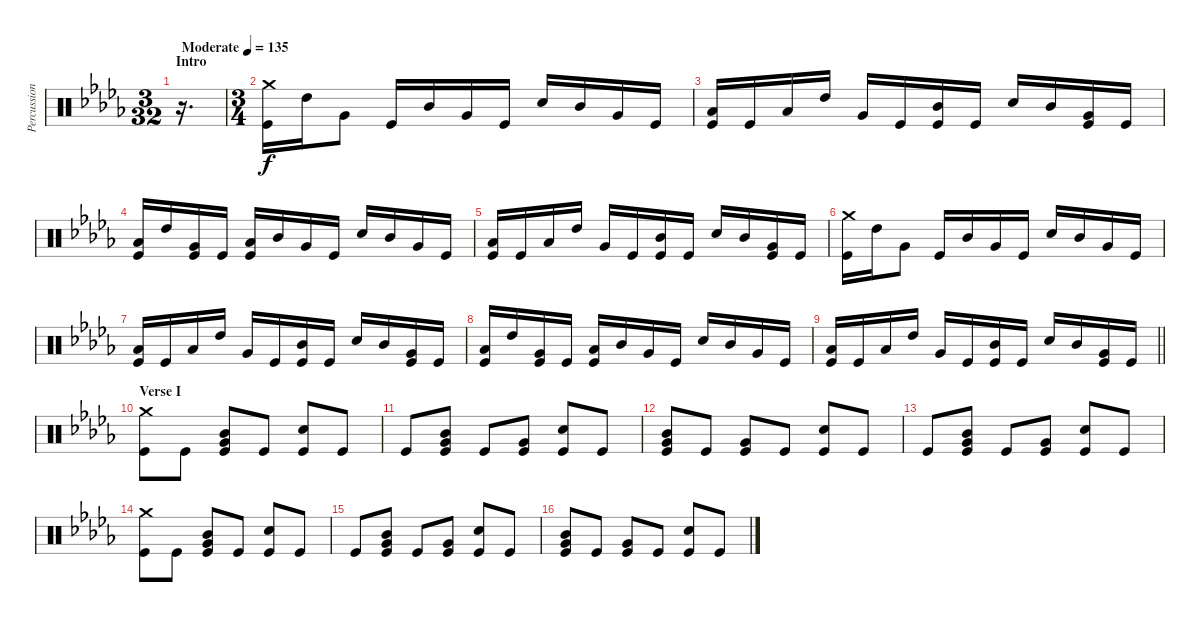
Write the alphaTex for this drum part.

\track ("Percussion" "Percussion") {instrument percussion}
\staff {score}
\articulation defaults
\ts (3 32)
\section ("" "Intro")
\tempo (135 "Moderate")
\clef neutral
\ks db
r.16{d dy f} |
\ts (3 4)
("Crash medium (hit)" "Kick (hit)").16 "High Tom (hit)".16 "Very Low Tom (hit)".8 "Kick (hit)".16 "Mid Tom (hit)".16 "Very Low Tom (hit)".16 "Kick (hit)".16 "Electric Snare (hit)".16 "Mid Tom (hit)".16 "Very Low Tom (hit)".16 "Kick (hit)".16 |
("Low Tom (hit)" "Kick (hit)").16 "Kick (hit)".16 "Low Tom (hit)".16 "High Tom (hit)".16 "Very Low Tom (hit)".16 "Kick (hit)".16 ("Mid Tom (hit)" "Kick (hit)").16 "Kick (hit)".16 "Electric Snare (hit)".16 "Mid Tom (hit)".16 ("Very Low Tom (hit)" "Kick (hit)").16 "Kick (hit)".16 |
("Low Tom (hit)" "Kick (hit)").16 "High Tom (hit)".16 ("Very Low Tom (hit)" "Kick (hit)").16 "Kick (hit)".16 ("Low Tom (hit)" "Kick (hit)").16 "Mid Tom (hit)".16 "Very Low Tom (hit)".16 "Kick (hit)".16 "Electric Snare (hit)".16 "Mid Tom (hit)".16 "Very Low Tom (hit)".16 "Kick (hit)".16 |
("Low Tom (hit)" "Kick (hit)").16 "Kick (hit)".16 "Low Tom (hit)".16 "High Tom (hit)".16 "Very Low Tom (hit)".16 "Kick (hit)".16 ("Mid Tom (hit)" "Kick (hit)").16 "Kick (hit)".16 "Electric Snare (hit)".16 "Mid Tom (hit)".16 ("Very Low Tom (hit)" "Kick (hit)").16 "Kick (hit)".16 |
("Crash medium (hit)" "Kick (hit)").16 "High Tom (hit)".16 "Very Low Tom (hit)".8 "Kick (hit)".16 "Mid Tom (hit)".16 "Very Low Tom (hit)".16 "Kick (hit)".16 "Electric Snare (hit)".16 "Mid Tom (hit)".16 "Very Low Tom (hit)".16 "Kick (hit)".16 |
("Low Tom (hit)" "Kick (hit)").16 "Kick (hit)".16 "Low Tom (hit)".16 "High Tom (hit)".16 "Very Low Tom (hit)".16 "Kick (hit)".16 ("Mid Tom (hit)" "Kick (hit)").16 "Kick (hit)".16 "Electric Snare (hit)".16 "Mid Tom (hit)".16 ("Very Low Tom (hit)" "Kick (hit)").16 "Kick (hit)".16 |
("Low Tom (hit)" "Kick (hit)").16 "High Tom (hit)".16 ("Very Low Tom (hit)" "Kick (hit)").16 "Kick (hit)".16 ("Low Tom (hit)" "Kick (hit)").16 "Mid Tom (hit)".16 "Very Low Tom (hit)".16 "Kick (hit)".16 "Electric Snare (hit)".16 "Mid Tom (hit)".16 "Very Low Tom (hit)".16 "Kick (hit)".16 |
\barLineRight lightlight
("Low Tom (hit)" "Kick (hit)").16 "Kick (hit)".16 "Low Tom (hit)".16 "High Tom (hit)".16 "Very Low Tom (hit)".16 "Kick (hit)".16 ("Mid Tom (hit)" "Kick (hit)").16 "Kick (hit)".16 "Electric Snare (hit)".16 "Mid Tom (hit)".16 ("Very Low Tom (hit)" "Kick (hit)").16 "Kick (hit)".16 |
\section ("" "Verse I")
("Crash medium (hit)" "Kick (hit)").8 "Kick (hit)".8 ("Mid Tom (hit)" "Very Low Tom (hit)" "Kick (hit)").8 "Kick (hit)".8 ("Electric Snare (hit)" "Kick (hit)").8 "Kick (hit)".8 |
"Kick (hit)".8 ("Mid Tom (hit)" "Very Low Tom (hit)" "Kick (hit)").8 "Kick (hit)".8 ("Very Low Tom (hit)" "Kick (hit)").8 ("Electric Snare (hit)" "Kick (hit)").8 "Kick (hit)".8 |
("Mid Tom (hit)" "Very Low Tom (hit)" "Kick (hit)").8 "Kick (hit)".8 ("Very Low Tom (hit)" "Kick (hit)").8 "Kick (hit)".8 ("Electric Snare (hit)" "Kick (hit)").8 "Kick (hit)".8 |
"Kick (hit)".8 ("Mid Tom (hit)" "Very Low Tom (hit)" "Kick (hit)").8 "Kick (hit)".8 ("Very Low Tom (hit)" "Kick (hit)").8 ("Electric Snare (hit)" "Kick (hit)").8 "Kick (hit)".8 |
("Crash medium (hit)" "Kick (hit)").8 "Kick (hit)".8 ("Mid Tom (hit)" "Very Low Tom (hit)" "Kick (hit)").8 "Kick (hit)".8 ("Electric Snare (hit)" "Kick (hit)").8 "Kick (hit)".8 |
"Kick (hit)".8 ("Mid Tom (hit)" "Very Low Tom (hit)" "Kick (hit)").8 "Kick (hit)".8 ("Very Low Tom (hit)" "Kick (hit)").8 ("Electric Snare (hit)" "Kick (hit)").8 "Kick (hit)".8 |
("Mid Tom (hit)" "Very Low Tom (hit)" "Kick (hit)").8 "Kick (hit)".8 ("Very Low Tom (hit)" "Kick (hit)").8 "Kick (hit)".8 ("Electric Snare (hit)" "Kick (hit)").8 "Kick (hit)".8
